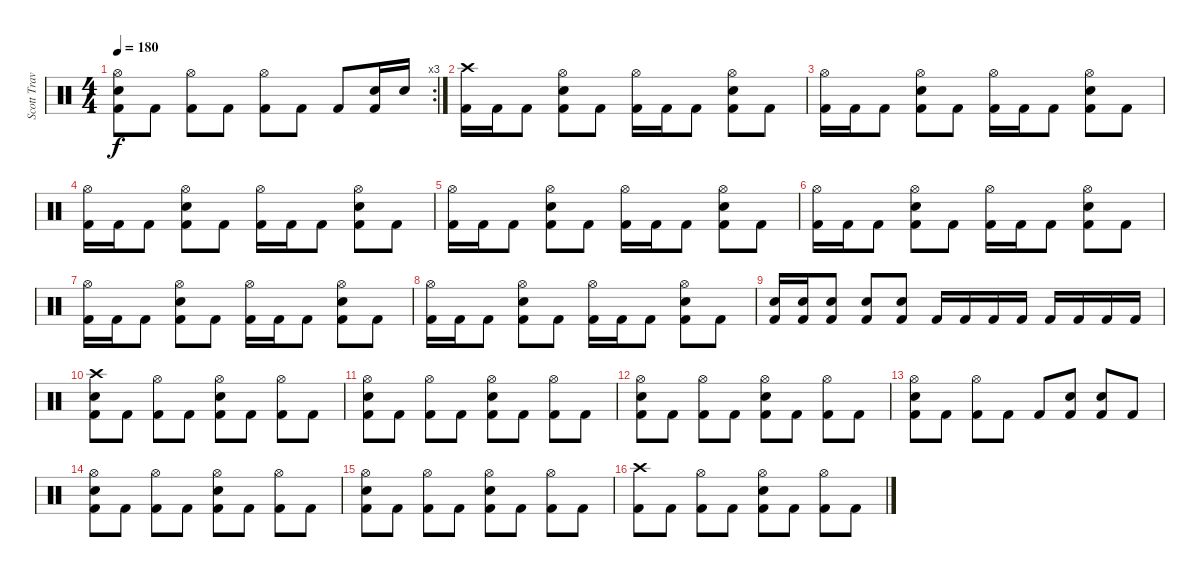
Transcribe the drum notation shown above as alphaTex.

\track ("Scott Travis" "Scott Trav") {instrument percussion}
\staff {score}
\articulation defaults
\rc 3
\ts (4 4)
\tempo 180
\clef neutral
\ks c
("Hi-Hat (open)" "Snare (hit) 2" "Kick (hit) 2").8{dy f} "Kick (hit) 2".8 ("Hi-Hat (open)" "Kick (hit) 2").8 "Kick (hit) 2".8 ("Hi-Hat (open)" "Kick (hit) 2").8 "Kick (hit) 2".8 "Kick (hit) 2".8 ("Snare (hit) 2" "Kick (hit) 2").16 "Snare (hit) 2".16 |
("Crash high (hit)" "Kick (hit) 2").16 "Kick (hit) 2".16 "Kick (hit) 2".8 ("Hi-Hat (open)" "Snare (hit) 2" "Kick (hit) 2").8 "Kick (hit) 2".8 ("Hi-Hat (open)" "Kick (hit) 2").16 "Kick (hit) 2".16 "Kick (hit) 2".8 ("Hi-Hat (open)" "Snare (hit) 2" "Kick (hit) 2").8 "Kick (hit) 2".8 |
("Hi-Hat (open)" "Kick (hit) 2").16 "Kick (hit) 2".16 "Kick (hit) 2".8 ("Hi-Hat (open)" "Snare (hit) 2" "Kick (hit) 2").8 "Kick (hit) 2".8 ("Hi-Hat (open)" "Kick (hit) 2").16 "Kick (hit) 2".16 "Kick (hit) 2".8 ("Hi-Hat (open)" "Snare (hit) 2" "Kick (hit) 2").8 "Kick (hit) 2".8 |
("Hi-Hat (open)" "Kick (hit) 2").16 "Kick (hit) 2".16 "Kick (hit) 2".8 ("Hi-Hat (open)" "Snare (hit) 2" "Kick (hit) 2").8 "Kick (hit) 2".8 ("Hi-Hat (open)" "Kick (hit) 2").16 "Kick (hit) 2".16 "Kick (hit) 2".8 ("Hi-Hat (open)" "Snare (hit) 2" "Kick (hit) 2").8 "Kick (hit) 2".8 |
("Hi-Hat (open)" "Kick (hit) 2").16 "Kick (hit) 2".16 "Kick (hit) 2".8 ("Hi-Hat (open)" "Snare (hit) 2" "Kick (hit) 2").8 "Kick (hit) 2".8 ("Hi-Hat (open)" "Kick (hit) 2").16 "Kick (hit) 2".16 "Kick (hit) 2".8 ("Hi-Hat (open)" "Snare (hit) 2" "Kick (hit) 2").8 "Kick (hit) 2".8 |
("Hi-Hat (open)" "Kick (hit) 2").16 "Kick (hit) 2".16 "Kick (hit) 2".8 ("Hi-Hat (open)" "Snare (hit) 2" "Kick (hit) 2").8 "Kick (hit) 2".8 ("Hi-Hat (open)" "Kick (hit) 2").16 "Kick (hit) 2".16 "Kick (hit) 2".8 ("Hi-Hat (open)" "Snare (hit) 2" "Kick (hit) 2").8 "Kick (hit) 2".8 |
("Hi-Hat (open)" "Kick (hit) 2").16 "Kick (hit) 2".16 "Kick (hit) 2".8 ("Hi-Hat (open)" "Snare (hit) 2" "Kick (hit) 2").8 "Kick (hit) 2".8 ("Hi-Hat (open)" "Kick (hit) 2").16 "Kick (hit) 2".16 "Kick (hit) 2".8 ("Hi-Hat (open)" "Snare (hit) 2" "Kick (hit) 2").8 "Kick (hit) 2".8 |
("Hi-Hat (open)" "Kick (hit) 2").16 "Kick (hit) 2".16 "Kick (hit) 2".8 ("Hi-Hat (open)" "Snare (hit) 2" "Kick (hit) 2").8 "Kick (hit) 2".8 ("Hi-Hat (open)" "Kick (hit) 2").16 "Kick (hit) 2".16 "Kick (hit) 2".8 ("Hi-Hat (open)" "Snare (hit) 2" "Kick (hit) 2").8 "Kick (hit) 2".8 |
("Snare (hit) 2" "Kick (hit) 2").16 ("Snare (hit) 2" "Kick (hit) 2").16 ("Snare (hit) 2" "Kick (hit) 2").8 ("Snare (hit) 2" "Kick (hit) 2").8 ("Snare (hit) 2" "Kick (hit) 2").8 "Kick (hit) 2".16 "Kick (hit) 2".16 "Kick (hit) 2".16 "Kick (hit) 2".16 "Kick (hit) 2".16 "Kick (hit) 2".16 "Kick (hit) 2".16 "Kick (hit) 2".16 |
("Crash high (hit)" "Snare (hit) 2" "Kick (hit) 2").8 "Kick (hit) 2".8 ("Hi-Hat (open)" "Kick (hit) 2").8 "Kick (hit) 2".8 ("Hi-Hat (open)" "Snare (hit) 2" "Kick (hit) 2").8 "Kick (hit) 2".8 ("Hi-Hat (open)" "Kick (hit) 2").8 "Kick (hit) 2".8 |
("Hi-Hat (open)" "Snare (hit) 2" "Kick (hit) 2").8 "Kick (hit) 2".8 ("Hi-Hat (open)" "Kick (hit) 2").8 "Kick (hit) 2".8 ("Hi-Hat (open)" "Snare (hit) 2" "Kick (hit) 2").8 "Kick (hit) 2".8 ("Hi-Hat (open)" "Kick (hit) 2").8 "Kick (hit) 2".8 |
("Hi-Hat (open)" "Snare (hit) 2" "Kick (hit) 2").8 "Kick (hit) 2".8 ("Hi-Hat (open)" "Kick (hit) 2").8 "Kick (hit) 2".8 ("Hi-Hat (open)" "Snare (hit) 2" "Kick (hit) 2").8 "Kick (hit) 2".8 ("Hi-Hat (open)" "Kick (hit) 2").8 "Kick (hit) 2".8 |
("Hi-Hat (open)" "Snare (hit) 2" "Kick (hit) 2").8 "Kick (hit) 2".8 ("Hi-Hat (open)" "Kick (hit) 2").8 "Kick (hit) 2".8 "Kick (hit) 2".8 ("Snare (hit) 2" "Kick (hit) 2").8 ("Snare (hit) 2" "Kick (hit) 2").8 "Kick (hit) 2".8 |
("Hi-Hat (open)" "Snare (hit) 2" "Kick (hit) 2").8 "Kick (hit) 2".8 ("Hi-Hat (open)" "Kick (hit) 2").8 "Kick (hit) 2".8 ("Hi-Hat (open)" "Snare (hit) 2" "Kick (hit) 2").8 "Kick (hit) 2".8 ("Hi-Hat (open)" "Kick (hit) 2").8 "Kick (hit) 2".8 |
("Hi-Hat (open)" "Snare (hit) 2" "Kick (hit) 2").8 "Kick (hit) 2".8 ("Hi-Hat (open)" "Kick (hit) 2").8 "Kick (hit) 2".8 ("Hi-Hat (open)" "Snare (hit) 2" "Kick (hit) 2").8 "Kick (hit) 2".8 ("Hi-Hat (open)" "Kick (hit) 2").8 "Kick (hit) 2".8 |
("Crash high (hit)" "Kick (hit) 2").8 "Kick (hit) 2".8 ("Hi-Hat (open)" "Kick (hit) 2").8 "Kick (hit) 2".8 ("Hi-Hat (open)" "Snare (hit) 2" "Kick (hit) 2").8 "Kick (hit) 2".8 ("Hi-Hat (open)" "Kick (hit) 2").8 "Kick (hit) 2".8
